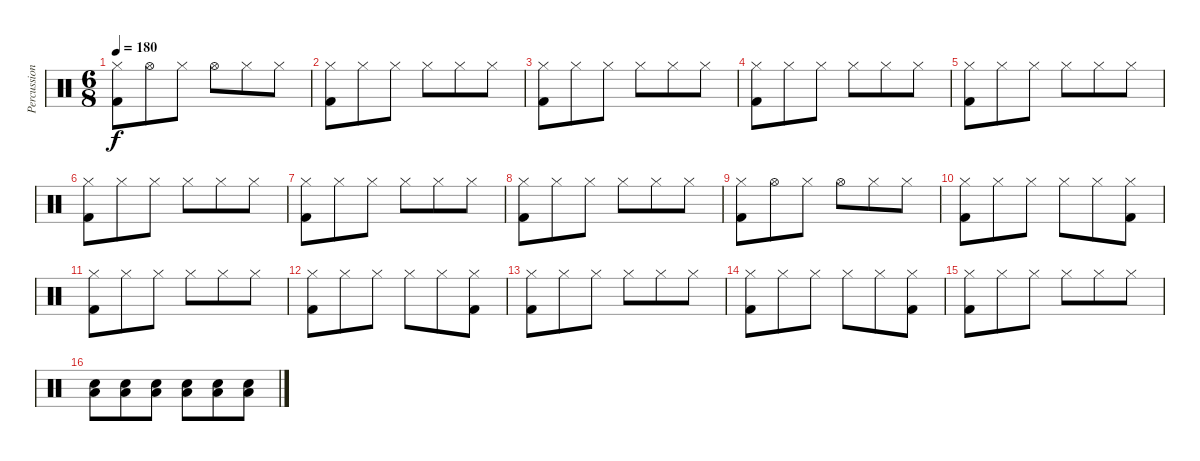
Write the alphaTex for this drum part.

\track ("Percussion" "Percussion") {instrument percussion}
\staff {score}
\articulation defaults
\ts (6 8)
\tempo 180
\clef neutral
\ks c
("Hi-Hat (closed)" "Kick (hit) 2").8{dy f} "Hi-Hat (open)".8 "Hi-Hat (closed)".8 "Hi-Hat (open)".8 "Hi-Hat (closed)".8 "Hi-Hat (closed)".8 |
("Hi-Hat (closed)" "Kick (hit) 2").8 "Hi-Hat (closed)".8 "Hi-Hat (closed)".8 "Hi-Hat (closed)".8 "Hi-Hat (closed)".8 "Hi-Hat (closed)".8 |
("Hi-Hat (closed)" "Kick (hit) 2").8 "Hi-Hat (closed)".8 "Hi-Hat (closed)".8 "Hi-Hat (closed)".8 "Hi-Hat (closed)".8 "Hi-Hat (closed)".8 |
("Hi-Hat (closed)" "Kick (hit) 2").8 "Hi-Hat (closed)".8 "Hi-Hat (closed)".8 "Hi-Hat (closed)".8 "Hi-Hat (closed)".8 "Hi-Hat (closed)".8 |
("Hi-Hat (closed)" "Kick (hit) 2").8 "Hi-Hat (closed)".8 "Hi-Hat (closed)".8 "Hi-Hat (closed)".8 "Hi-Hat (closed)".8 "Hi-Hat (closed)".8 |
("Hi-Hat (closed)" "Kick (hit) 2").8 "Hi-Hat (closed)".8 "Hi-Hat (closed)".8 "Hi-Hat (closed)".8 "Hi-Hat (closed)".8 "Hi-Hat (closed)".8 |
("Hi-Hat (closed)" "Kick (hit) 2").8 "Hi-Hat (closed)".8 "Hi-Hat (closed)".8 "Hi-Hat (closed)".8 "Hi-Hat (closed)".8 "Hi-Hat (closed)".8 |
("Hi-Hat (closed)" "Kick (hit) 2").8 "Hi-Hat (closed)".8 "Hi-Hat (closed)".8 "Hi-Hat (closed)".8 "Hi-Hat (closed)".8 "Hi-Hat (closed)".8 |
("Hi-Hat (closed)" "Kick (hit) 2").8 "Hi-Hat (open)".8 "Hi-Hat (closed)".8 "Hi-Hat (open)".8 "Hi-Hat (closed)".8 "Hi-Hat (closed)".8 |
("Hi-Hat (closed)" "Kick (hit) 2").8 "Hi-Hat (closed)".8 "Hi-Hat (closed)".8 "Hi-Hat (closed)".8 "Hi-Hat (closed)".8 ("Hi-Hat (closed)" "Kick (hit) 2").8 |
("Hi-Hat (closed)" "Kick (hit) 2").8 "Hi-Hat (closed)".8 "Hi-Hat (closed)".8 "Hi-Hat (closed)".8 "Hi-Hat (closed)".8 "Hi-Hat (closed)".8 |
("Hi-Hat (closed)" "Kick (hit) 2").8 "Hi-Hat (closed)".8 "Hi-Hat (closed)".8 "Hi-Hat (closed)".8 "Hi-Hat (closed)".8 ("Hi-Hat (closed)" "Kick (hit) 2").8 |
("Hi-Hat (closed)" "Kick (hit) 2").8 "Hi-Hat (closed)".8 "Hi-Hat (closed)".8 "Hi-Hat (closed)".8 "Hi-Hat (closed)".8 "Hi-Hat (closed)".8 |
("Hi-Hat (closed)" "Kick (hit) 2").8 "Hi-Hat (closed)".8 "Hi-Hat (closed)".8 "Hi-Hat (closed)".8 "Hi-Hat (closed)".8 ("Hi-Hat (closed)" "Kick (hit) 2").8 |
("Hi-Hat (closed)" "Kick (hit) 2").8 "Hi-Hat (closed)".8 "Hi-Hat (closed)".8 "Hi-Hat (closed)".8 "Hi-Hat (closed)".8 "Hi-Hat (closed)".8 |
("Low Floor Tom (hit)" "Electric Snare (hit)").8 ("Low Floor Tom (hit)" "Electric Snare (hit)").8 ("Low Floor Tom (hit)" "Electric Snare (hit)").8 ("Low Floor Tom (hit)" "Electric Snare (hit)").8 ("Low Floor Tom (hit)" "Electric Snare (hit)").8 ("Low Floor Tom (hit)" "Electric Snare (hit)").8
